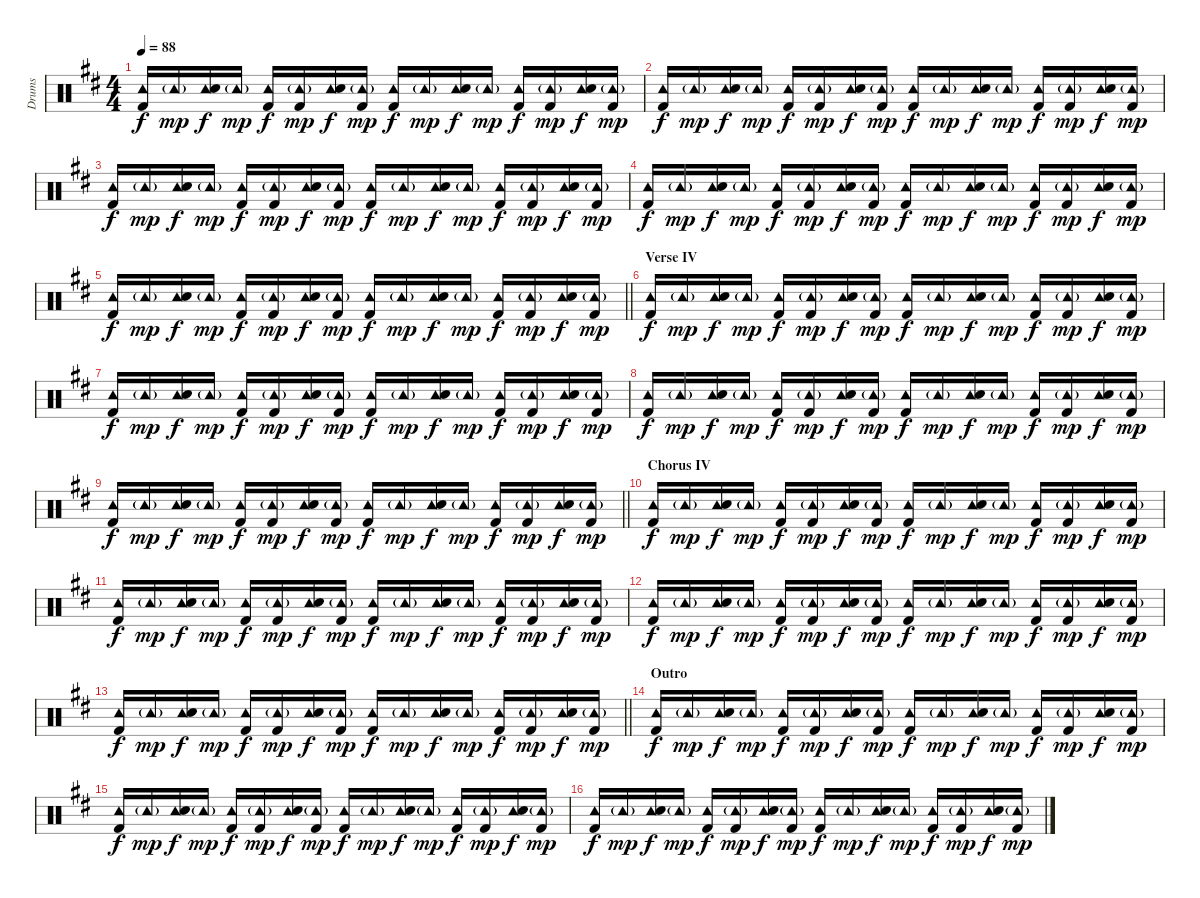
\track ("Drums" "Drums") {instrument percussion}
\staff {score}
\articulation defaults
\ts (4 4)
\tempo 88
\clef neutral
\ks d
("Tambourine (hit)" "Kick (hit) 2").16{dy f} "Tambourine (hit)"{g}.16{dy mp} ("Tambourine (hit)" "Snare (hit) 2").16{dy f} "Tambourine (hit)"{g}.16{dy mp} ("Tambourine (hit)" "Kick (hit) 2").16{dy f} ("Tambourine (hit)"{g} "Kick (hit) 2").16{dy mp} ("Tambourine (hit)" "Snare (hit) 2").16{dy f} ("Tambourine (hit)"{g} "Kick (hit) 2").16{dy mp} ("Tambourine (hit)" "Kick (hit) 2").16{dy f} "Tambourine (hit)"{g}.16{dy mp} ("Tambourine (hit)" "Snare (hit) 2").16{dy f} "Tambourine (hit)"{g}.16{dy mp} ("Tambourine (hit)" "Kick (hit) 2").16{dy f} ("Tambourine (hit)"{g} "Kick (hit) 2").16{dy mp} ("Tambourine (hit)" "Snare (hit) 2").16{dy f} ("Tambourine (hit)"{g} "Kick (hit) 2").16{dy mp} |
("Tambourine (hit)" "Kick (hit) 2").16{dy f} "Tambourine (hit)"{g}.16{dy mp} ("Tambourine (hit)" "Snare (hit) 2").16{dy f} "Tambourine (hit)"{g}.16{dy mp} ("Tambourine (hit)" "Kick (hit) 2").16{dy f} ("Tambourine (hit)"{g} "Kick (hit) 2").16{dy mp} ("Tambourine (hit)" "Snare (hit) 2").16{dy f} ("Tambourine (hit)"{g} "Kick (hit) 2").16{dy mp} ("Tambourine (hit)" "Kick (hit) 2").16{dy f} "Tambourine (hit)"{g}.16{dy mp} ("Tambourine (hit)" "Snare (hit) 2").16{dy f} "Tambourine (hit)"{g}.16{dy mp} ("Tambourine (hit)" "Kick (hit) 2").16{dy f} ("Tambourine (hit)"{g} "Kick (hit) 2").16{dy mp} ("Tambourine (hit)" "Snare (hit) 2").16{dy f} ("Tambourine (hit)"{g} "Kick (hit) 2").16{dy mp} |
("Tambourine (hit)" "Kick (hit) 2").16{dy f} "Tambourine (hit)"{g}.16{dy mp} ("Tambourine (hit)" "Snare (hit) 2").16{dy f} "Tambourine (hit)"{g}.16{dy mp} ("Tambourine (hit)" "Kick (hit) 2").16{dy f} ("Tambourine (hit)"{g} "Kick (hit) 2").16{dy mp} ("Tambourine (hit)" "Snare (hit) 2").16{dy f} ("Tambourine (hit)"{g} "Kick (hit) 2").16{dy mp} ("Tambourine (hit)" "Kick (hit) 2").16{dy f} "Tambourine (hit)"{g}.16{dy mp} ("Tambourine (hit)" "Snare (hit) 2").16{dy f} "Tambourine (hit)"{g}.16{dy mp} ("Tambourine (hit)" "Kick (hit) 2").16{dy f} ("Tambourine (hit)"{g} "Kick (hit) 2").16{dy mp} ("Tambourine (hit)" "Snare (hit) 2").16{dy f} ("Tambourine (hit)"{g} "Kick (hit) 2").16{dy mp} |
("Tambourine (hit)" "Kick (hit) 2").16{dy f} "Tambourine (hit)"{g}.16{dy mp} ("Tambourine (hit)" "Snare (hit) 2").16{dy f} "Tambourine (hit)"{g}.16{dy mp} ("Tambourine (hit)" "Kick (hit) 2").16{dy f} ("Tambourine (hit)"{g} "Kick (hit) 2").16{dy mp} ("Tambourine (hit)" "Snare (hit) 2").16{dy f} ("Tambourine (hit)"{g} "Kick (hit) 2").16{dy mp} ("Tambourine (hit)" "Kick (hit) 2").16{dy f} "Tambourine (hit)"{g}.16{dy mp} ("Tambourine (hit)" "Snare (hit) 2").16{dy f} "Tambourine (hit)"{g}.16{dy mp} ("Tambourine (hit)" "Kick (hit) 2").16{dy f} ("Tambourine (hit)"{g} "Kick (hit) 2").16{dy mp} ("Tambourine (hit)" "Snare (hit) 2").16{dy f} ("Tambourine (hit)"{g} "Kick (hit) 2").16{dy mp} |
\barLineRight lightlight
("Tambourine (hit)" "Kick (hit) 2").16{dy f} "Tambourine (hit)"{g}.16{dy mp} ("Tambourine (hit)" "Snare (hit) 2").16{dy f} "Tambourine (hit)"{g}.16{dy mp} ("Tambourine (hit)" "Kick (hit) 2").16{dy f} ("Tambourine (hit)"{g} "Kick (hit) 2").16{dy mp} ("Tambourine (hit)" "Snare (hit) 2").16{dy f} ("Tambourine (hit)"{g} "Kick (hit) 2").16{dy mp} ("Tambourine (hit)" "Kick (hit) 2").16{dy f} "Tambourine (hit)"{g}.16{dy mp} ("Tambourine (hit)" "Snare (hit) 2").16{dy f} "Tambourine (hit)"{g}.16{dy mp} ("Tambourine (hit)" "Kick (hit) 2").16{dy f} ("Tambourine (hit)"{g} "Kick (hit) 2").16{dy mp} ("Tambourine (hit)" "Snare (hit) 2").16{dy f} ("Tambourine (hit)"{g} "Kick (hit) 2").16{dy mp} |
\section ("" "Verse IV")
("Tambourine (hit)" "Kick (hit) 2").16{dy f} "Tambourine (hit)"{g}.16{dy mp} ("Tambourine (hit)" "Snare (hit) 2").16{dy f} "Tambourine (hit)"{g}.16{dy mp} ("Tambourine (hit)" "Kick (hit) 2").16{dy f} ("Tambourine (hit)"{g} "Kick (hit) 2").16{dy mp} ("Tambourine (hit)" "Snare (hit) 2").16{dy f} ("Tambourine (hit)"{g} "Kick (hit) 2").16{dy mp} ("Tambourine (hit)" "Kick (hit) 2").16{dy f} "Tambourine (hit)"{g}.16{dy mp} ("Tambourine (hit)" "Snare (hit) 2").16{dy f} "Tambourine (hit)"{g}.16{dy mp} ("Tambourine (hit)" "Kick (hit) 2").16{dy f} ("Tambourine (hit)"{g} "Kick (hit) 2").16{dy mp} ("Tambourine (hit)" "Snare (hit) 2").16{dy f} ("Tambourine (hit)"{g} "Kick (hit) 2").16{dy mp} |
("Tambourine (hit)" "Kick (hit) 2").16{dy f} "Tambourine (hit)"{g}.16{dy mp} ("Tambourine (hit)" "Snare (hit) 2").16{dy f} "Tambourine (hit)"{g}.16{dy mp} ("Tambourine (hit)" "Kick (hit) 2").16{dy f} ("Tambourine (hit)"{g} "Kick (hit) 2").16{dy mp} ("Tambourine (hit)" "Snare (hit) 2").16{dy f} ("Tambourine (hit)"{g} "Kick (hit) 2").16{dy mp} ("Tambourine (hit)" "Kick (hit) 2").16{dy f} "Tambourine (hit)"{g}.16{dy mp} ("Tambourine (hit)" "Snare (hit) 2").16{dy f} "Tambourine (hit)"{g}.16{dy mp} ("Tambourine (hit)" "Kick (hit) 2").16{dy f} ("Tambourine (hit)"{g} "Kick (hit) 2").16{dy mp} ("Tambourine (hit)" "Snare (hit) 2").16{dy f} ("Tambourine (hit)"{g} "Kick (hit) 2").16{dy mp} |
("Tambourine (hit)" "Kick (hit) 2").16{dy f} "Tambourine (hit)"{g}.16{dy mp} ("Tambourine (hit)" "Snare (hit) 2").16{dy f} "Tambourine (hit)"{g}.16{dy mp} ("Tambourine (hit)" "Kick (hit) 2").16{dy f} ("Tambourine (hit)"{g} "Kick (hit) 2").16{dy mp} ("Tambourine (hit)" "Snare (hit) 2").16{dy f} ("Tambourine (hit)"{g} "Kick (hit) 2").16{dy mp} ("Tambourine (hit)" "Kick (hit) 2").16{dy f} "Tambourine (hit)"{g}.16{dy mp} ("Tambourine (hit)" "Snare (hit) 2").16{dy f} "Tambourine (hit)"{g}.16{dy mp} ("Tambourine (hit)" "Kick (hit) 2").16{dy f} ("Tambourine (hit)"{g} "Kick (hit) 2").16{dy mp} ("Tambourine (hit)" "Snare (hit) 2").16{dy f} ("Tambourine (hit)"{g} "Kick (hit) 2").16{dy mp} |
\barLineRight lightlight
("Tambourine (hit)" "Kick (hit) 2").16{dy f} "Tambourine (hit)"{g}.16{dy mp} ("Tambourine (hit)" "Snare (hit) 2").16{dy f} "Tambourine (hit)"{g}.16{dy mp} ("Tambourine (hit)" "Kick (hit) 2").16{dy f} ("Tambourine (hit)"{g} "Kick (hit) 2").16{dy mp} ("Tambourine (hit)" "Snare (hit) 2").16{dy f} ("Tambourine (hit)"{g} "Kick (hit) 2").16{dy mp} ("Tambourine (hit)" "Kick (hit) 2").16{dy f} "Tambourine (hit)"{g}.16{dy mp} ("Tambourine (hit)" "Snare (hit) 2").16{dy f} "Tambourine (hit)"{g}.16{dy mp} ("Tambourine (hit)" "Kick (hit) 2").16{dy f} ("Tambourine (hit)"{g} "Kick (hit) 2").16{dy mp} ("Tambourine (hit)" "Snare (hit) 2").16{dy f} ("Tambourine (hit)"{g} "Kick (hit) 2").16{dy mp} |
\section ("" "Chorus IV")
("Tambourine (hit)" "Kick (hit) 2").16{dy f} "Tambourine (hit)"{g}.16{dy mp} ("Tambourine (hit)" "Snare (hit) 2").16{dy f} "Tambourine (hit)"{g}.16{dy mp} ("Tambourine (hit)" "Kick (hit) 2").16{dy f} ("Tambourine (hit)"{g} "Kick (hit) 2").16{dy mp} ("Tambourine (hit)" "Snare (hit) 2").16{dy f} ("Tambourine (hit)"{g} "Kick (hit) 2").16{dy mp} ("Tambourine (hit)" "Kick (hit) 2").16{dy f} "Tambourine (hit)"{g}.16{dy mp} ("Tambourine (hit)" "Snare (hit) 2").16{dy f} "Tambourine (hit)"{g}.16{dy mp} ("Tambourine (hit)" "Kick (hit) 2").16{dy f} ("Tambourine (hit)"{g} "Kick (hit) 2").16{dy mp} ("Tambourine (hit)" "Snare (hit) 2").16{dy f} ("Tambourine (hit)"{g} "Kick (hit) 2").16{dy mp} |
("Tambourine (hit)" "Kick (hit) 2").16{dy f} "Tambourine (hit)"{g}.16{dy mp} ("Tambourine (hit)" "Snare (hit) 2").16{dy f} "Tambourine (hit)"{g}.16{dy mp} ("Tambourine (hit)" "Kick (hit) 2").16{dy f} ("Tambourine (hit)"{g} "Kick (hit) 2").16{dy mp} ("Tambourine (hit)" "Snare (hit) 2").16{dy f} ("Tambourine (hit)"{g} "Kick (hit) 2").16{dy mp} ("Tambourine (hit)" "Kick (hit) 2").16{dy f} "Tambourine (hit)"{g}.16{dy mp} ("Tambourine (hit)" "Snare (hit) 2").16{dy f} "Tambourine (hit)"{g}.16{dy mp} ("Tambourine (hit)" "Kick (hit) 2").16{dy f} ("Tambourine (hit)"{g} "Kick (hit) 2").16{dy mp} ("Tambourine (hit)" "Snare (hit) 2").16{dy f} ("Tambourine (hit)"{g} "Kick (hit) 2").16{dy mp} |
("Tambourine (hit)" "Kick (hit) 2").16{dy f} "Tambourine (hit)"{g}.16{dy mp} ("Tambourine (hit)" "Snare (hit) 2").16{dy f} "Tambourine (hit)"{g}.16{dy mp} ("Tambourine (hit)" "Kick (hit) 2").16{dy f} ("Tambourine (hit)"{g} "Kick (hit) 2").16{dy mp} ("Tambourine (hit)" "Snare (hit) 2").16{dy f} ("Tambourine (hit)"{g} "Kick (hit) 2").16{dy mp} ("Tambourine (hit)" "Kick (hit) 2").16{dy f} "Tambourine (hit)"{g}.16{dy mp} ("Tambourine (hit)" "Snare (hit) 2").16{dy f} "Tambourine (hit)"{g}.16{dy mp} ("Tambourine (hit)" "Kick (hit) 2").16{dy f} ("Tambourine (hit)"{g} "Kick (hit) 2").16{dy mp} ("Tambourine (hit)" "Snare (hit) 2").16{dy f} ("Tambourine (hit)"{g} "Kick (hit) 2").16{dy mp} |
\barLineRight lightlight
("Tambourine (hit)" "Kick (hit) 2").16{dy f} "Tambourine (hit)"{g}.16{dy mp} ("Tambourine (hit)" "Snare (hit) 2").16{dy f} "Tambourine (hit)"{g}.16{dy mp} ("Tambourine (hit)" "Kick (hit) 2").16{dy f} ("Tambourine (hit)"{g} "Kick (hit) 2").16{dy mp} ("Tambourine (hit)" "Snare (hit) 2").16{dy f} ("Tambourine (hit)"{g} "Kick (hit) 2").16{dy mp} ("Tambourine (hit)" "Kick (hit) 2").16{dy f} "Tambourine (hit)"{g}.16{dy mp} ("Tambourine (hit)" "Snare (hit) 2").16{dy f} "Tambourine (hit)"{g}.16{dy mp} ("Tambourine (hit)" "Kick (hit) 2").16{dy f} ("Tambourine (hit)"{g} "Kick (hit) 2").16{dy mp} ("Tambourine (hit)" "Snare (hit) 2").16{dy f} ("Tambourine (hit)"{g} "Kick (hit) 2").16{dy mp} |
\section ("" "Outro")
("Tambourine (hit)" "Kick (hit) 2").16{dy f} "Tambourine (hit)"{g}.16{dy mp} ("Tambourine (hit)" "Snare (hit) 2").16{dy f} "Tambourine (hit)"{g}.16{dy mp} ("Tambourine (hit)" "Kick (hit) 2").16{dy f} ("Tambourine (hit)"{g} "Kick (hit) 2").16{dy mp} ("Tambourine (hit)" "Snare (hit) 2").16{dy f} ("Tambourine (hit)"{g} "Kick (hit) 2").16{dy mp} ("Tambourine (hit)" "Kick (hit) 2").16{dy f} "Tambourine (hit)"{g}.16{dy mp} ("Tambourine (hit)" "Snare (hit) 2").16{dy f} "Tambourine (hit)"{g}.16{dy mp} ("Tambourine (hit)" "Kick (hit) 2").16{dy f} ("Tambourine (hit)"{g} "Kick (hit) 2").16{dy mp} ("Tambourine (hit)" "Snare (hit) 2").16{dy f} ("Tambourine (hit)"{g} "Kick (hit) 2").16{dy mp} |
("Tambourine (hit)" "Kick (hit) 2").16{dy f} "Tambourine (hit)"{g}.16{dy mp} ("Tambourine (hit)" "Snare (hit) 2").16{dy f} "Tambourine (hit)"{g}.16{dy mp} ("Tambourine (hit)" "Kick (hit) 2").16{dy f} ("Tambourine (hit)"{g} "Kick (hit) 2").16{dy mp} ("Tambourine (hit)" "Snare (hit) 2").16{dy f} ("Tambourine (hit)"{g} "Kick (hit) 2").16{dy mp} ("Tambourine (hit)" "Kick (hit) 2").16{dy f} "Tambourine (hit)"{g}.16{dy mp} ("Tambourine (hit)" "Snare (hit) 2").16{dy f} "Tambourine (hit)"{g}.16{dy mp} ("Tambourine (hit)" "Kick (hit) 2").16{dy f} ("Tambourine (hit)"{g} "Kick (hit) 2").16{dy mp} ("Tambourine (hit)" "Snare (hit) 2").16{dy f} ("Tambourine (hit)"{g} "Kick (hit) 2").16{dy mp} |
("Tambourine (hit)" "Kick (hit) 2").16{dy f} "Tambourine (hit)"{g}.16{dy mp} ("Tambourine (hit)" "Snare (hit) 2").16{dy f} "Tambourine (hit)"{g}.16{dy mp} ("Tambourine (hit)" "Kick (hit) 2").16{dy f} ("Tambourine (hit)"{g} "Kick (hit) 2").16{dy mp} ("Tambourine (hit)" "Snare (hit) 2").16{dy f} ("Tambourine (hit)"{g} "Kick (hit) 2").16{dy mp} ("Tambourine (hit)" "Kick (hit) 2").16{dy f} "Tambourine (hit)"{g}.16{dy mp} ("Tambourine (hit)" "Snare (hit) 2").16{dy f} "Tambourine (hit)"{g}.16{dy mp} ("Tambourine (hit)" "Kick (hit) 2").16{dy f} ("Tambourine (hit)"{g} "Kick (hit) 2").16{dy mp} ("Tambourine (hit)" "Snare (hit) 2").16{dy f} ("Tambourine (hit)"{g} "Kick (hit) 2").16{dy mp}
